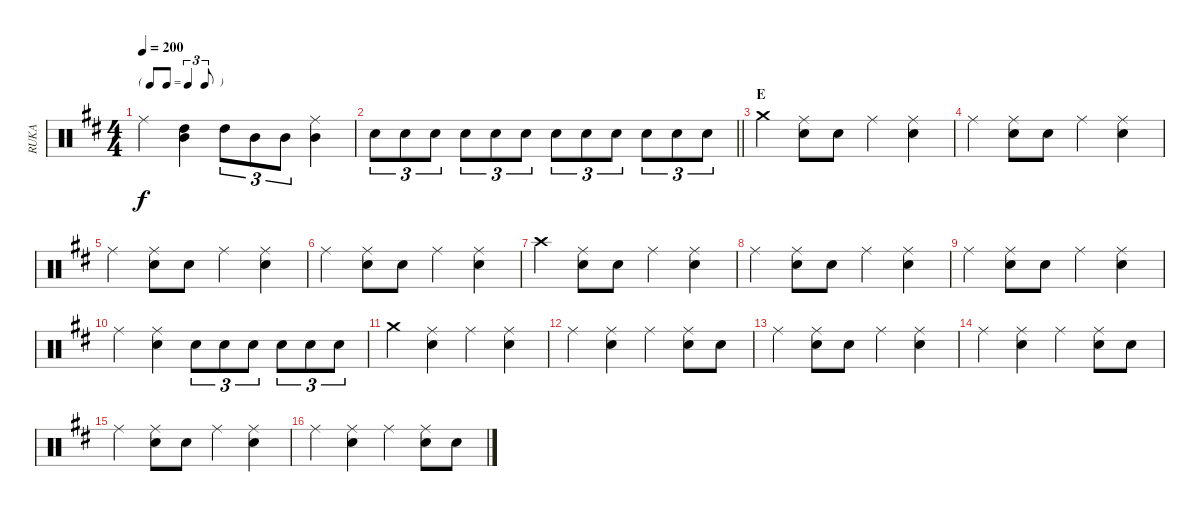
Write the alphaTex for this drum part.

\track ("RUKA" "RUKA") {instrument percussion}
\staff {score}
\articulation defaults
\ts (4 4)
\tf triplet8th
\tempo 200
\clef neutral
\ks d "Ride (middle)".4{dy f}
("High Tom (hit)" "Mid Tom (hit)").4 "High Tom (hit)".8{tu (3 2)} "Mid Tom (hit)".8{tu (3 2)} "Mid Tom (hit)".8{tu (3 2)} ("Ride (middle)" "Mid Tom (hit)").4 |
\barLineRight lightlight "Snare (hit) 2".8{tu (3 2)} "Snare (hit) 2".8{tu (3 2)} "Snare (hit) 2".8{tu (3 2)} "Snare (hit) 2".8{tu (3 2)} "Snare (hit) 2".8{tu (3 2)} "Snare (hit) 2".8{tu (3 2)} "Snare (hit) 2".8{tu (3 2)} "Snare (hit) 2".8{tu (3 2)} "Snare (hit) 2".8{tu (3 2)} "Snare (hit) 2".8{tu (3 2)} "Snare (hit) 2".8{tu (3 2)} "Snare (hit) 2".8{tu (3 2)}
|
\section ("" "E")
"Crash medium (hit)".4 ("Ride (middle)" "Snare (hit) 2").8 "Snare (hit) 2".8 "Ride (middle)".4 ("Ride (middle)" "Snare (hit) 2").4 |
"Ride (middle)".4 ("Ride (middle)" "Snare (hit) 2").8 "Snare (hit) 2".8 "Ride (middle)".4 ("Ride (middle)" "Snare (hit) 2").4 |
"Ride (middle)".4 ("Ride (middle)" "Snare (hit) 2").8 "Snare (hit) 2".8 "Ride (middle)".4 ("Ride (middle)" "Snare (hit) 2").4 |
"Ride (middle)".4 ("Ride (middle)" "Snare (hit) 2").8 "Snare (hit) 2".8 "Ride (middle)".4 ("Ride (middle)" "Snare (hit) 2").4 |
"Crash high (hit)".4 ("Ride (middle)" "Snare (hit) 2").8 "Snare (hit) 2".8 "Ride (middle)".4 ("Ride (middle)" "Snare (hit) 2").4 |
"Ride (middle)".4 ("Ride (middle)" "Snare (hit) 2").8 "Snare (hit) 2".8 "Ride (middle)".4 ("Ride (middle)" "Snare (hit) 2").4 |
"Ride (middle)".4 ("Ride (middle)" "Snare (hit) 2").8 "Snare (hit) 2".8 "Ride (middle)".4 ("Ride (middle)" "Snare (hit) 2").4 |
"Ride (middle)".4 ("Ride (middle)" "Snare (hit) 2").4 "Snare (hit) 2".8{tu (3 2)} "Snare (hit) 2".8{tu (3 2)} "Snare (hit) 2".8{tu (3 2)} "Snare (hit) 2".8{tu (3 2)} "Snare (hit) 2".8{tu (3 2)} "Snare (hit) 2".8{tu (3 2)} |
"Crash medium (hit)".4 ("Ride (middle)" "Snare (hit) 2").4 "Ride (middle)".4 ("Ride (middle)" "Snare (hit) 2").4 |
"Ride (middle)".4 ("Ride (middle)" "Snare (hit) 2").4 "Ride (middle)".4 ("Ride (middle)" "Snare (hit) 2").8 "Snare (hit) 2".8 |
"Ride (middle)".4 ("Ride (middle)" "Snare (hit) 2").8 "Snare (hit) 2".8 "Ride (middle)".4 ("Ride (middle)" "Snare (hit) 2").4 |
"Ride (middle)".4 ("Ride (middle)" "Snare (hit) 2").4 "Ride (middle)".4 ("Ride (middle)" "Snare (hit) 2").8 "Snare (hit) 2".8 |
"Ride (middle)".4 ("Ride (middle)" "Snare (hit) 2").8 "Snare (hit) 2".8 "Ride (middle)".4 ("Ride (middle)" "Snare (hit) 2").4 |
"Ride (middle)".4 ("Ride (middle)" "Snare (hit) 2").4 "Ride (middle)".4 ("Ride (middle)" "Snare (hit) 2").8 "Snare (hit) 2".8
